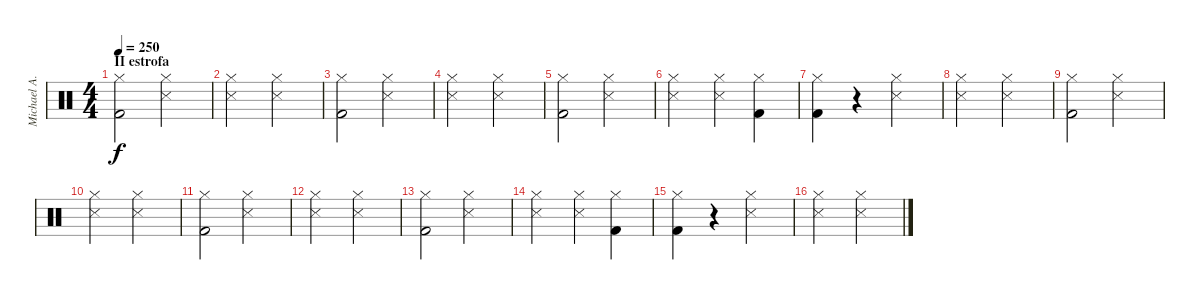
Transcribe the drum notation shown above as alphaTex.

\track ("Michael A." "Michael A.") {instrument percussion}
\staff {score}
\articulation defaults
\ts (4 4)
\section ("" "II estrofa")
\tempo 250
\clef neutral
\ks c
("Hi-Hat (closed)" "Kick (hit) 2").2{dy f} ("Hi-Hat (closed)" "Snare (side stick) 3").2 |
("Hi-Hat (closed)" "Snare (side stick) 3").2 ("Hi-Hat (closed)" "Snare (side stick) 3").2 |
("Hi-Hat (closed)" "Kick (hit) 2").2 ("Hi-Hat (closed)" "Snare (side stick) 3").2 |
("Hi-Hat (closed)" "Snare (side stick) 3").2 ("Hi-Hat (closed)" "Snare (side stick) 3").2 |
("Hi-Hat (closed)" "Kick (hit) 2").2 ("Hi-Hat (closed)" "Snare (side stick) 3").2 |
("Hi-Hat (closed)" "Snare (side stick) 3").2 ("Hi-Hat (closed)" "Snare (side stick) 3").4 ("Hi-Hat (closed)" "Kick (hit) 2").4 |
("Hi-Hat (closed)" "Kick (hit) 2").4 r.4 ("Hi-Hat (closed)" "Snare (side stick) 3").2 |
("Hi-Hat (closed)" "Snare (side stick) 3").2 ("Hi-Hat (closed)" "Snare (side stick) 3").2 |
("Hi-Hat (closed)" "Kick (hit) 2").2 ("Hi-Hat (closed)" "Snare (side stick) 3").2 |
("Hi-Hat (closed)" "Snare (side stick) 3").2 ("Hi-Hat (closed)" "Snare (side stick) 3").2 |
("Hi-Hat (closed)" "Kick (hit) 2").2 ("Hi-Hat (closed)" "Snare (side stick) 3").2 |
("Hi-Hat (closed)" "Snare (side stick) 3").2 ("Hi-Hat (closed)" "Snare (side stick) 3").2 |
("Hi-Hat (closed)" "Kick (hit) 2").2 ("Hi-Hat (closed)" "Snare (side stick) 3").2 |
("Hi-Hat (closed)" "Snare (side stick) 3").2 ("Hi-Hat (closed)" "Snare (side stick) 3").4 ("Hi-Hat (closed)" "Kick (hit) 2").4 |
("Hi-Hat (closed)" "Kick (hit) 2").4 r.4 ("Hi-Hat (closed)" "Snare (side stick) 3").2 |
("Hi-Hat (closed)" "Snare (side stick) 3").2 ("Hi-Hat (closed)" "Snare (side stick) 3").2
